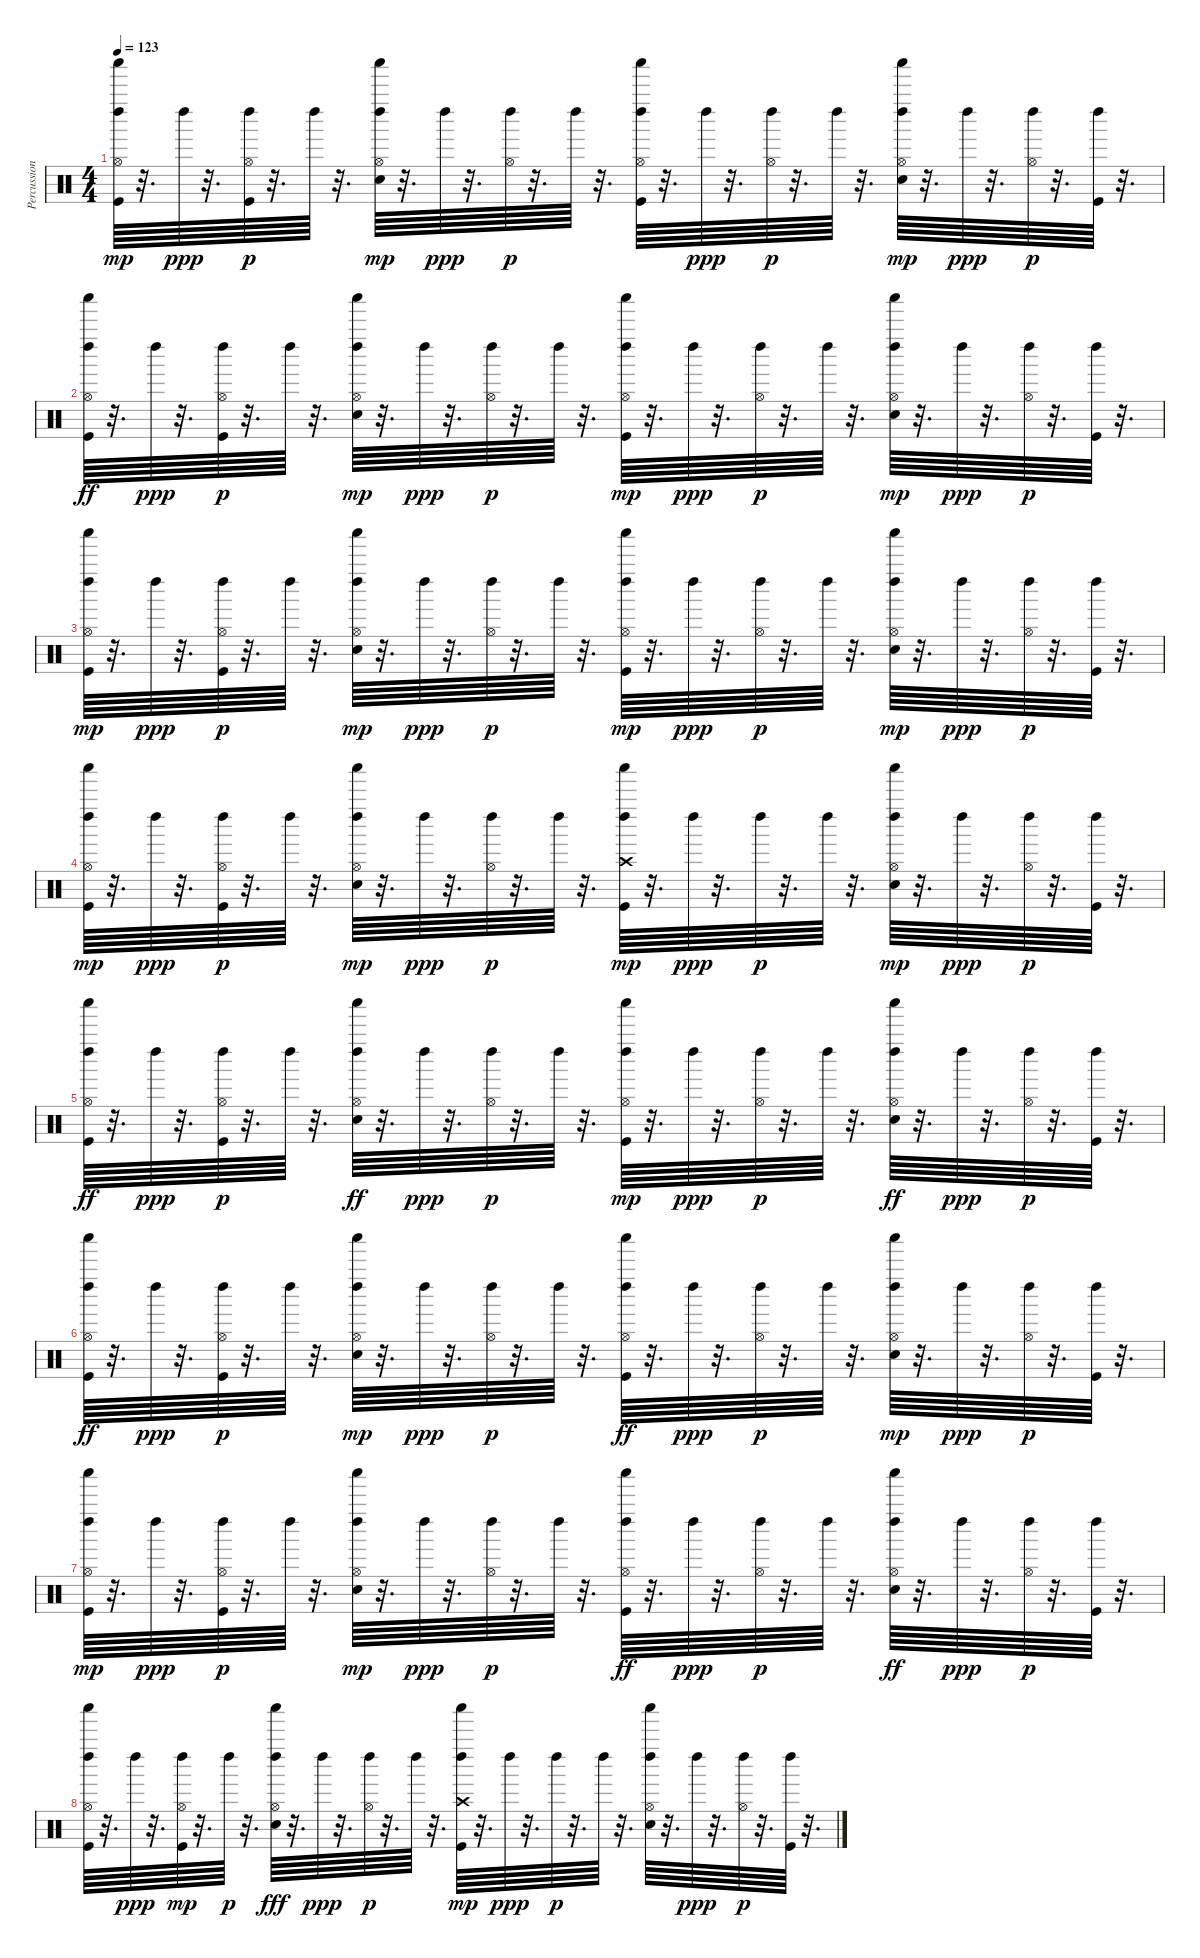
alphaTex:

\track ("Percussion" "Percussion") {instrument percussion}
\staff {score}
\articulation defaults
\ts (4 4)
\tempo 123
\clef neutral
\ks c
("Kick (hit)" "Hi-Hat (open)" "Left Maraca (hit)" "Shaker (hit)").64{dy mp} r.32{d} "Left Maraca (hit)".64{dy ppp} r.32{d} ("Kick (hit)" "Hi-Hat (open)" "Left Maraca (hit)").64{dy p} r.32{d} "Left Maraca (hit)".64 r.32{d} ("Electric Snare (hit)" "Hi-Hat (open)" "Left Maraca (hit)" "Shaker (hit)").64{dy mp} r.32{d} "Left Maraca (hit)".64{dy ppp} r.32{d} ("Hi-Hat (open)" "Left Maraca (hit)").64{dy p} r.32{d} "Left Maraca (hit)".64 r.32{d} ("Kick (hit)" "Left Maraca (hit)" "Shaker (hit)" "Hi-Hat (open)").64 r.32{d} "Left Maraca (hit)".64{dy ppp} r.32{d} ("Hi-Hat (open)" "Left Maraca (hit)").64{dy p} r.32{d} "Left Maraca (hit)".64 r.32{d} ("Electric Snare (hit)" "Hi-Hat (open)" "Left Maraca (hit)" "Shaker (hit)").64{dy mp} r.32{d} "Left Maraca (hit)".64{dy ppp} r.32{d} ("Hi-Hat (open)" "Left Maraca (hit)").64{dy p} r.32{d} ("Kick (hit)" "Left Maraca (hit)").64 r.32{d} |
("Shaker (hit)" "Left Maraca (hit)" "Hi-Hat (open)" "Kick (hit)").64{dy ff} r.32{d} "Left Maraca (hit)".64{dy ppp} r.32{d} ("Left Maraca (hit)" "Kick (hit)" "Hi-Hat (open)").64{dy p} r.32{d} "Left Maraca (hit)".64 r.32{d} ("Electric Snare (hit)" "Hi-Hat (open)" "Left Maraca (hit)" "Shaker (hit)").64{dy mp} r.32{d} "Left Maraca (hit)".64{dy ppp} r.32{d} ("Hi-Hat (open)" "Left Maraca (hit)").64{dy p} r.32{d} "Left Maraca (hit)".64 r.32{d} ("Kick (hit)" "Hi-Hat (open)" "Left Maraca (hit)" "Shaker (hit)").64{dy mp} r.32{d} "Left Maraca (hit)".64{dy ppp} r.32{d} ("Hi-Hat (open)" "Left Maraca (hit)").64{dy p} r.32{d} "Left Maraca (hit)".64 r.32{d} ("Electric Snare (hit)" "Hi-Hat (open)" "Left Maraca (hit)" "Shaker (hit)").64{dy mp} r.32{d} "Left Maraca (hit)".64{dy ppp} r.32{d} ("Hi-Hat (open)" "Left Maraca (hit)").64{dy p} r.32{d} ("Kick (hit)" "Left Maraca (hit)").64 r.32{d} |
("Kick (hit)" "Hi-Hat (open)" "Left Maraca (hit)" "Shaker (hit)").64{dy mp} r.32{d} "Left Maraca (hit)".64{dy ppp} r.32{d} ("Kick (hit)" "Hi-Hat (open)" "Left Maraca (hit)").64{dy p} r.32{d} "Left Maraca (hit)".64 r.32{d} ("Hi-Hat (open)" "Electric Snare (hit)" "Shaker (hit)" "Left Maraca (hit)").64{dy mp} r.32{d} "Left Maraca (hit)".64{dy ppp} r.32{d} ("Hi-Hat (open)" "Left Maraca (hit)").64{dy p} r.32{d} "Left Maraca (hit)".64 r.32{d} ("Shaker (hit)" "Hi-Hat (open)" "Kick (hit)" "Left Maraca (hit)").64{dy mp} r.32{d} "Left Maraca (hit)".64{dy ppp} r.32{d} ("Hi-Hat (open)" "Left Maraca (hit)").64{dy p} r.32{d} "Left Maraca (hit)".64 r.32{d} ("Shaker (hit)" "Hi-Hat (open)" "Electric Snare (hit)" "Left Maraca (hit)").64{dy mp} r.32{d} "Left Maraca (hit)".64{dy ppp} r.32{d} ("Hi-Hat (open)" "Left Maraca (hit)").64{dy p} r.32{d} ("Kick (hit)" "Left Maraca (hit)").64 r.32{d} |
("Kick (hit)" "Hi-Hat (open)" "Left Maraca (hit)" "Shaker (hit)").64{dy mp} r.32{d} "Left Maraca (hit)".64{dy ppp} r.32{d} ("Left Maraca (hit)" "Kick (hit)" "Hi-Hat (open)").64{dy p} r.32{d} "Left Maraca (hit)".64 r.32{d} ("Electric Snare (hit)" "Hi-Hat (open)" "Left Maraca (hit)" "Shaker (hit)").64{dy mp} r.32{d} "Left Maraca (hit)".64{dy ppp} r.32{d} ("Hi-Hat (open)" "Left Maraca (hit)").64{dy p} r.32{d} "Left Maraca (hit)".64 r.32{d} ("Kick (hit)" "Crash high (hit)" "Left Maraca (hit)" "Shaker (hit)").64{dy mp} r.32{d} "Left Maraca (hit)".64{dy ppp} r.32{d} "Left Maraca (hit)".64{dy p} r.32{d} "Left Maraca (hit)".64 r.32{d} ("Electric Snare (hit)" "Shaker (hit)" "Hi-Hat (open)" "Left Maraca (hit)").64{dy mp} r.32{d} "Left Maraca (hit)".64{dy ppp} r.32{d} ("Hi-Hat (open)" "Left Maraca (hit)").64{dy p} r.32{d} ("Kick (hit)" "Left Maraca (hit)").64 r.32{d} |
("Shaker (hit)" "Left Maraca (hit)" "Hi-Hat (open)" "Kick (hit)").64{dy ff} r.32{d} "Left Maraca (hit)".64{dy ppp} r.32{d} ("Left Maraca (hit)" "Kick (hit)" "Hi-Hat (open)").64{dy p} r.32{d} "Left Maraca (hit)".64 r.32{d} ("Hi-Hat (open)" "Shaker (hit)" "Left Maraca (hit)" "Electric Snare (hit)").64{dy ff} r.32{d} "Left Maraca (hit)".64{dy ppp} r.32{d} ("Hi-Hat (open)" "Left Maraca (hit)").64{dy p} r.32{d} "Left Maraca (hit)".64 r.32{d} ("Hi-Hat (open)" "Kick (hit)" "Shaker (hit)" "Left Maraca (hit)").64{dy mp} r.32{d} "Left Maraca (hit)".64{dy ppp} r.32{d} ("Hi-Hat (open)" "Left Maraca (hit)").64{dy p} r.32{d} "Left Maraca (hit)".64 r.32{d} ("Shaker (hit)" "Left Maraca (hit)" "Hi-Hat (open)" "Electric Snare (hit)").64{dy ff} r.32{d} "Left Maraca (hit)".64{dy ppp} r.32{d} ("Hi-Hat (open)" "Left Maraca (hit)").64{dy p} r.32{d} ("Kick (hit)" "Left Maraca (hit)").64 r.32{d} |
("Shaker (hit)" "Left Maraca (hit)" "Hi-Hat (open)" "Kick (hit)").64{dy ff} r.32{d} "Left Maraca (hit)".64{dy ppp} r.32{d} ("Kick (hit)" "Hi-Hat (open)" "Left Maraca (hit)").64{dy p} r.32{d} "Left Maraca (hit)".64 r.32{d} ("Electric Snare (hit)" "Hi-Hat (open)" "Left Maraca (hit)" "Shaker (hit)").64{dy mp} r.32{d} "Left Maraca (hit)".64{dy ppp} r.32{d} ("Hi-Hat (open)" "Left Maraca (hit)").64{dy p} r.32{d} "Left Maraca (hit)".64 r.32{d} ("Shaker (hit)" "Left Maraca (hit)" "Hi-Hat (open)" "Kick (hit)").64{dy ff} r.32{d} "Left Maraca (hit)".64{dy ppp} r.32{d} ("Hi-Hat (open)" "Left Maraca (hit)").64{dy p} r.32{d} "Left Maraca (hit)".64 r.32{d} ("Electric Snare (hit)" "Hi-Hat (open)" "Left Maraca (hit)" "Shaker (hit)").64{dy mp} r.32{d} "Left Maraca (hit)".64{dy ppp} r.32{d} ("Hi-Hat (open)" "Left Maraca (hit)").64{dy p} r.32{d} ("Kick (hit)" "Left Maraca (hit)").64 r.32{d} |
("Kick (hit)" "Hi-Hat (open)" "Left Maraca (hit)" "Shaker (hit)").64{dy mp} r.32{d} "Left Maraca (hit)".64{dy ppp} r.32{d} ("Kick (hit)" "Hi-Hat (open)" "Left Maraca (hit)").64{dy p} r.32{d} "Left Maraca (hit)".64 r.32{d} ("Left Maraca (hit)" "Electric Snare (hit)" "Hi-Hat (open)" "Shaker (hit)").64{dy mp} r.32{d} "Left Maraca (hit)".64{dy ppp} r.32{d} ("Hi-Hat (open)" "Left Maraca (hit)").64{dy p} r.32{d} "Left Maraca (hit)".64 r.32{d} ("Left Maraca (hit)" "Hi-Hat (open)" "Shaker (hit)" "Kick (hit)").64{dy ff} r.32{d} "Left Maraca (hit)".64{dy ppp} r.32{d} ("Hi-Hat (open)" "Left Maraca (hit)").64{dy p} r.32{d} "Left Maraca (hit)".64 r.32{d} ("Left Maraca (hit)" "Hi-Hat (open)" "Shaker (hit)" "Electric Snare (hit)").64{dy ff} r.32{d} "Left Maraca (hit)".64{dy ppp} r.32{d} ("Hi-Hat (open)" "Left Maraca (hit)").64{dy p} r.32{d} ("Kick (hit)" "Left Maraca (hit)").64 r.32{d} |
("Shaker (hit)" "Kick (hit)" "Left Maraca (hit)" "Hi-Hat (open)").64 r.32{d} "Left Maraca (hit)".64{dy ppp} r.32{d} ("Hi-Hat (open)" "Left Maraca (hit)" "Kick (hit)").64{dy mp} r.32{d} "Left Maraca (hit)".64{dy p} r.32{d} ("Shaker (hit)" "Left Maraca (hit)" "Hi-Hat (open)" "Electric Snare (hit)").64{dy fff} r.32{d} "Left Maraca (hit)".64{dy ppp} r.32{d} ("Hi-Hat (open)" "Left Maraca (hit)").64{dy p} r.32{d} "Left Maraca (hit)".64 r.32{d} ("Kick (hit)" "Crash high (hit)" "Left Maraca (hit)" "Shaker (hit)").64{dy mp} r.32{d} "Left Maraca (hit)".64{dy ppp} r.32{d} "Left Maraca (hit)".64{dy p} r.32{d} "Left Maraca (hit)".64 r.32{d} ("Left Maraca (hit)" "Shaker (hit)" "Electric Snare (hit)" "Hi-Hat (open)").64 r.32{d} "Left Maraca (hit)".64{dy ppp} r.32{d} ("Hi-Hat (open)" "Left Maraca (hit)").64{dy p} r.32{d} ("Kick (hit)" "Left Maraca (hit)").64 r.32{d}
